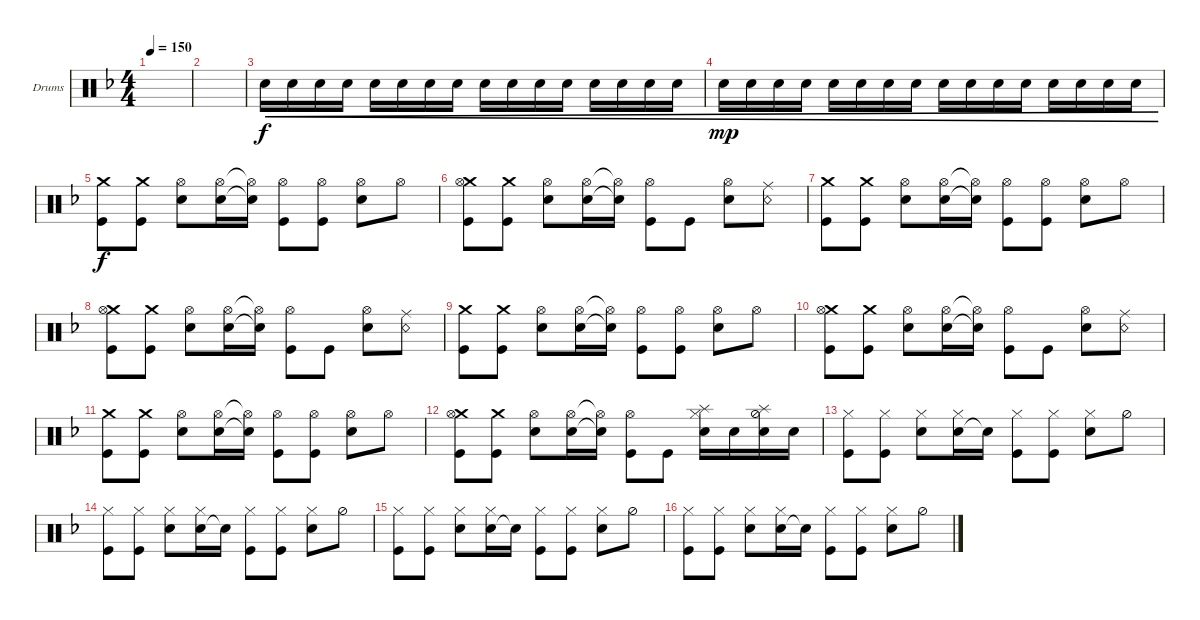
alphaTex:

\defaultSystemsLayout 4
\bracketExtendMode groupsimilarinstruments
\firstSystemTrackNameOrientation horizontal
\otherSystemsTrackNameOrientation horizontal
\track ("Шуруп - Ударные" "Drums") {instrument percussion}
\staff {score}
\articulation defaults
\ts (4 4)
\tempo 150
\clef neutral
\scale
0.474178
\ks f
|
\scale
0.262911 |
\scale
0.262911 "Snare (hit) 2".16{cre} "Snare (hit) 2".16{cre} "Snare (hit) 2".16{cre} "Snare (hit) 2".16{cre} "Snare (hit) 2".16{cre} "Snare (hit) 2".16{cre} "Snare (hit) 2".16{cre} "Snare (hit) 2".16{cre} "Snare (hit) 2".16{cre} "Snare (hit) 2".16{cre} "Snare (hit) 2".16{cre} "Snare (hit) 2".16{cre} "Snare (hit) 2".16{cre} "Snare (hit) 2".16{cre} "Snare (hit) 2".16{cre} "Snare (hit) 2".16{cre} |
"Snare (hit) 2".16{cre dy mp} "Snare (hit) 2".16{cre} "Snare (hit) 2".16{cre} "Snare (hit) 2".16{cre} "Snare (hit) 2".16{cre} "Snare (hit) 2".16{cre} "Snare (hit) 2".16{cre} "Snare (hit) 2".16{cre} "Snare (hit) 2".16{cre} "Snare (hit) 2".16{cre} "Snare (hit) 2".16{cre} "Snare (hit) 2".16{cre} "Snare (hit) 2".16{cre} "Snare (hit) 2".16{cre} "Snare (hit) 2".16{cre} "Snare (hit) 2".16{cre} |
("Kick (hit)" "Crash medium (hit)").8{dy f} ("Kick (hit)" "Crash medium (hit)").8 ("Snare (hit) 2" "Hi-Hat (open)").8 ("Snare (hit) 2" "Hi-Hat (open)").16 ("Snare (hit) 2"{t} "Hi-Hat (open)"{t}).16 ("Kick (hit)" "Hi-Hat (open)").8 ("Kick (hit)" "Hi-Hat (open)").8 ("Snare (hit) 2" "Hi-Hat (open)").8 "Hi-Hat (open)".8 |
("Kick (hit)" "Crash medium (hit)" "Hi-Hat (open)").8 ("Kick (hit)" "Crash medium (hit)").8 ("Snare (hit) 2" "Hi-Hat (open)").8 ("Snare (hit) 2" "Hi-Hat (open)").16 ("Snare (hit) 2"{t} "Hi-Hat (open)"{t}).16 ("Kick (hit)" "Hi-Hat (open)").8 "Kick (hit)".8 ("Snare (hit) 2" "Hi-Hat (open)").8 ("Snare (rim shot)" "Ride (middle)").8 |
("Kick (hit)" "Crash medium (hit)").8 ("Kick (hit)" "Crash medium (hit)").8 ("Snare (hit) 2" "Hi-Hat (open)").8 ("Snare (hit) 2" "Hi-Hat (open)").16 ("Snare (hit) 2"{t} "Hi-Hat (open)"{t}).16 ("Kick (hit)" "Hi-Hat (open)").8 ("Kick (hit)" "Hi-Hat (open)").8 ("Snare (hit) 2" "Hi-Hat (open)").8 "Hi-Hat (open)".8 |
("Kick (hit)" "Crash medium (hit)" "Hi-Hat (open)").8 ("Kick (hit)" "Crash medium (hit)").8 ("Snare (hit) 2" "Hi-Hat (open)").8 ("Snare (hit) 2" "Hi-Hat (open)").16 ("Snare (hit) 2"{t} "Hi-Hat (open)"{t}).16 ("Kick (hit)" "Hi-Hat (open)").8 "Kick (hit)".8 ("Snare (hit) 2" "Hi-Hat (open)").8 ("Snare (rim shot)" "Ride (middle)").8 |
("Kick (hit)" "Crash medium (hit)").8 ("Kick (hit)" "Crash medium (hit)").8 ("Snare (hit) 2" "Hi-Hat (open)").8 ("Snare (hit) 2" "Hi-Hat (open)").16 ("Snare (hit) 2"{t} "Hi-Hat (open)"{t}).16 ("Kick (hit)" "Hi-Hat (open)").8 ("Kick (hit)" "Hi-Hat (open)").8 ("Snare (hit) 2" "Hi-Hat (open)").8 "Hi-Hat (open)".8 |
("Kick (hit)" "Crash medium (hit)" "Hi-Hat (open)").8 ("Kick (hit)" "Crash medium (hit)").8 ("Snare (hit) 2" "Hi-Hat (open)").8 ("Snare (hit) 2" "Hi-Hat (open)").16 ("Snare (hit) 2"{t} "Hi-Hat (open)"{t}).16 ("Kick (hit)" "Hi-Hat (open)").8 "Kick (hit)".8 ("Snare (hit) 2" "Hi-Hat (open)").8 ("Snare (rim shot)" "Ride (middle)").8 |
("Kick (hit)" "Crash medium (hit)").8 ("Kick (hit)" "Crash medium (hit)").8 ("Snare (hit) 2" "Hi-Hat (open)").8 ("Snare (hit) 2" "Hi-Hat (open)").16 ("Snare (hit) 2"{t} "Hi-Hat (open)"{t}).16 ("Kick (hit)" "Hi-Hat (open)").8 ("Kick (hit)" "Hi-Hat (open)").8 ("Snare (hit) 2" "Hi-Hat (open)").8 "Hi-Hat (open)".8 |
("Kick (hit)" "Crash medium (hit)" "Hi-Hat (open)").8 ("Kick (hit)" "Crash medium (hit)").8 ("Snare (hit) 2" "Hi-Hat (open)").8 ("Snare (hit) 2" "Hi-Hat (open)").16 ("Snare (hit) 2"{t} "Hi-Hat (open)"{t}).16 ("Kick (hit)" "Hi-Hat (open)").8 "Kick (hit)".8 ("Snare (hit) 2" "Hi-Hat (closed)" "Splash (hit)").16 "Snare (hit) 2".16 ("Hi-Hat (half)" "Splash (hit)" "Snare (hit) 2").16 "Snare (hit) 2".16 |
("Kick (hit)" "Hi-Hat (closed)").8 ("Kick (hit)" "Hi-Hat (closed)").8 ("Snare (hit) 2" "Hi-Hat (closed)").8 ("Snare (hit) 2" "Hi-Hat (closed)").16 "Snare (hit) 2"{t}.16 ("Kick (hit)" "Hi-Hat (closed)").8 ("Kick (hit)" "Hi-Hat (closed)").8 ("Snare (hit) 2" "Hi-Hat (closed)").8 "Hi-Hat (half)".8 |
("Kick (hit)" "Hi-Hat (closed)").8 ("Kick (hit)" "Hi-Hat (closed)").8 ("Snare (hit) 2" "Hi-Hat (closed)").8 ("Snare (hit) 2" "Hi-Hat (closed)").16 "Snare (hit) 2"{t}.16 ("Kick (hit)" "Hi-Hat (closed)").8 ("Kick (hit)" "Hi-Hat (closed)").8 ("Snare (hit) 2" "Hi-Hat (closed)").8 "Hi-Hat (half)".8 |
("Kick (hit)" "Hi-Hat (closed)").8 ("Kick (hit)" "Hi-Hat (closed)").8 ("Snare (hit) 2" "Hi-Hat (closed)").8 ("Snare (hit) 2" "Hi-Hat (closed)").16 "Snare (hit) 2"{t}.16 ("Kick (hit)" "Hi-Hat (closed)").8 ("Kick (hit)" "Hi-Hat (closed)").8 ("Snare (hit) 2" "Hi-Hat (closed)").8 "Hi-Hat (half)".8 |
("Kick (hit)" "Hi-Hat (closed)").8 ("Kick (hit)" "Hi-Hat (closed)").8 ("Snare (hit) 2" "Hi-Hat (closed)").8 ("Snare (hit) 2" "Hi-Hat (closed)").16 "Snare (hit) 2"{t}.16 ("Kick (hit)" "Hi-Hat (closed)").8 ("Kick (hit)" "Hi-Hat (closed)").8 ("Snare (hit) 2" "Hi-Hat (closed)").8 "Hi-Hat (half)".8
